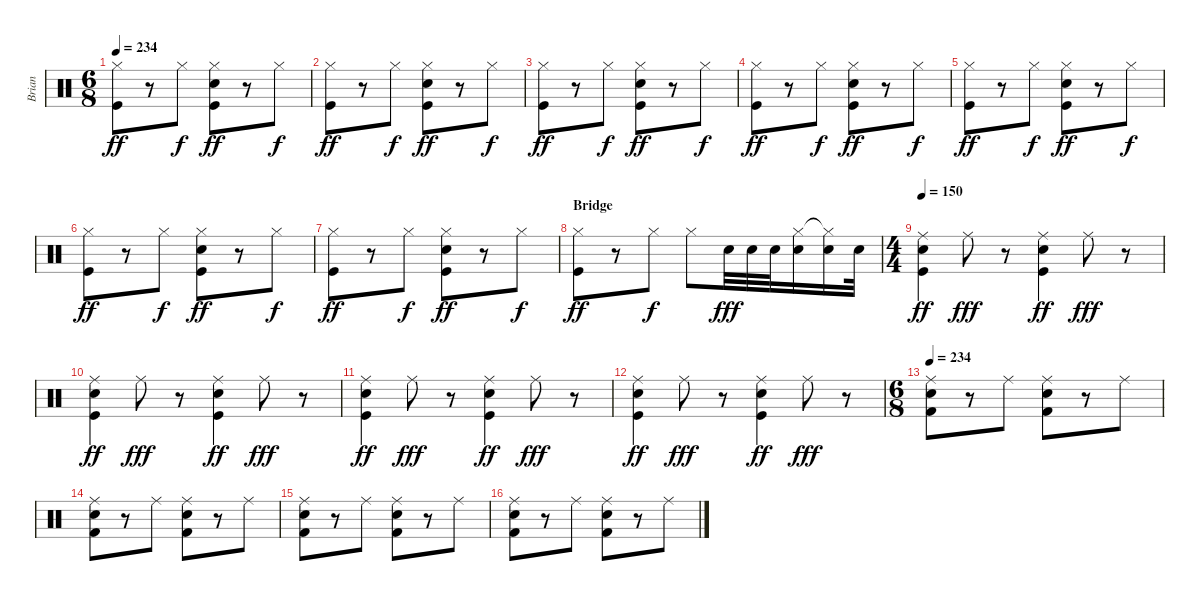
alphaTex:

\track ("Brian" "Brian") {instrument percussion}
\staff {score}
\articulation defaults
\ts (6 8)
\tempo 234
\clef neutral
\ks c
("Hi-Hat (closed)" "Kick (hit)").8{dy ff} r.8 "Hi-Hat (closed)".8{dy f} ("Hi-Hat (closed)" "Electric Snare (hit)" "Kick (hit)").8{dy ff} r.8 "Hi-Hat (closed)".8{dy f} |
("Hi-Hat (closed)" "Kick (hit)").8{dy ff} r.8 "Hi-Hat (closed)".8{dy f} ("Hi-Hat (closed)" "Electric Snare (hit)" "Kick (hit)").8{dy ff} r.8 "Hi-Hat (closed)".8{dy f} |
("Hi-Hat (closed)" "Kick (hit)").8{dy ff} r.8 "Hi-Hat (closed)".8{dy f} ("Hi-Hat (closed)" "Electric Snare (hit)" "Kick (hit)").8{dy ff} r.8 "Hi-Hat (closed)".8{dy f} |
("Hi-Hat (closed)" "Kick (hit)").8{dy ff} r.8 "Hi-Hat (closed)".8{dy f} ("Hi-Hat (closed)" "Electric Snare (hit)" "Kick (hit)").8{dy ff} r.8 "Hi-Hat (closed)".8{dy f} |
("Hi-Hat (closed)" "Kick (hit)").8{dy ff} r.8 "Hi-Hat (closed)".8{dy f} ("Hi-Hat (closed)" "Electric Snare (hit)" "Kick (hit)").8{dy ff} r.8 "Hi-Hat (closed)".8{dy f} |
("Hi-Hat (closed)" "Kick (hit)").8{dy ff} r.8 "Hi-Hat (closed)".8{dy f} ("Hi-Hat (closed)" "Electric Snare (hit)" "Kick (hit)").8{dy ff} r.8 "Hi-Hat (closed)".8{dy f} |
("Hi-Hat (closed)" "Kick (hit)").8{dy ff} r.8 "Hi-Hat (closed)".8{dy f} ("Hi-Hat (closed)" "Electric Snare (hit)" "Kick (hit)").8{dy ff} r.8 "Hi-Hat (closed)".8{dy f} |
\section ("" "Bridge")
("Hi-Hat (closed)" "Kick (hit)").8{dy ff} r.8 "Hi-Hat (closed)".8{dy f} "Hi-Hat (closed)".8 "Electric Snare (hit)".32{dy fff} "Electric Snare (hit)".32 "Electric Snare (hit)".32 ("Hi-Hat (closed)" "Electric Snare (hit)").16 ("Hi-Hat (closed)"{t} "Electric Snare (hit)").16 "Electric Snare (hit)".32 |
\ts (4 4)
\tempo 150
("Ride (middle)" "Electric Snare (hit)" "Kick (hit)").4{dy ff} "Ride (middle)".8{dy fff} r.8 ("Ride (middle)" "Electric Snare (hit)" "Kick (hit)").4{dy ff} "Ride (middle)".8{dy fff} r.8 |
("Ride (middle)" "Electric Snare (hit)" "Kick (hit)").4{dy ff} "Ride (middle)".8{dy fff} r.8 ("Ride (middle)" "Electric Snare (hit)" "Kick (hit)").4{dy ff} "Ride (middle)".8{dy fff} r.8 |
("Ride (middle)" "Electric Snare (hit)" "Kick (hit)").4{dy ff} "Ride (middle)".8{dy fff} r.8 ("Ride (middle)" "Electric Snare (hit)" "Kick (hit)").4{dy ff} "Ride (middle)".8{dy fff} r.8 |
("Ride (middle)" "Electric Snare (hit)" "Kick (hit)").4{dy ff} "Ride (middle)".8{dy fff} r.8 ("Ride (middle)" "Electric Snare (hit)" "Kick (hit)").4{dy ff} "Ride (middle)".8{dy fff} r.8 |
\ts (6 8)
\tempo 234
("Ride (middle)" "Electric Snare (hit)" "Kick (hit) 2").8 r.8 "Ride (middle)".8 ("Electric Snare (hit)" "Ride (middle)" "Kick (hit) 2").8 r.8 "Ride (middle)".8 |
("Ride (middle)" "Electric Snare (hit)" "Kick (hit) 2").8 r.8 "Ride (middle)".8 ("Electric Snare (hit)" "Ride (middle)" "Kick (hit) 2").8 r.8 "Ride (middle)".8 |
("Ride (middle)" "Electric Snare (hit)" "Kick (hit) 2").8 r.8 "Ride (middle)".8 ("Electric Snare (hit)" "Ride (middle)" "Kick (hit) 2").8 r.8 "Ride (middle)".8 |
("Ride (middle)" "Electric Snare (hit)" "Kick (hit) 2").8 r.8 "Ride (middle)".8 ("Electric Snare (hit)" "Ride (middle)" "Kick (hit) 2").8 r.8 "Ride (middle)".8
